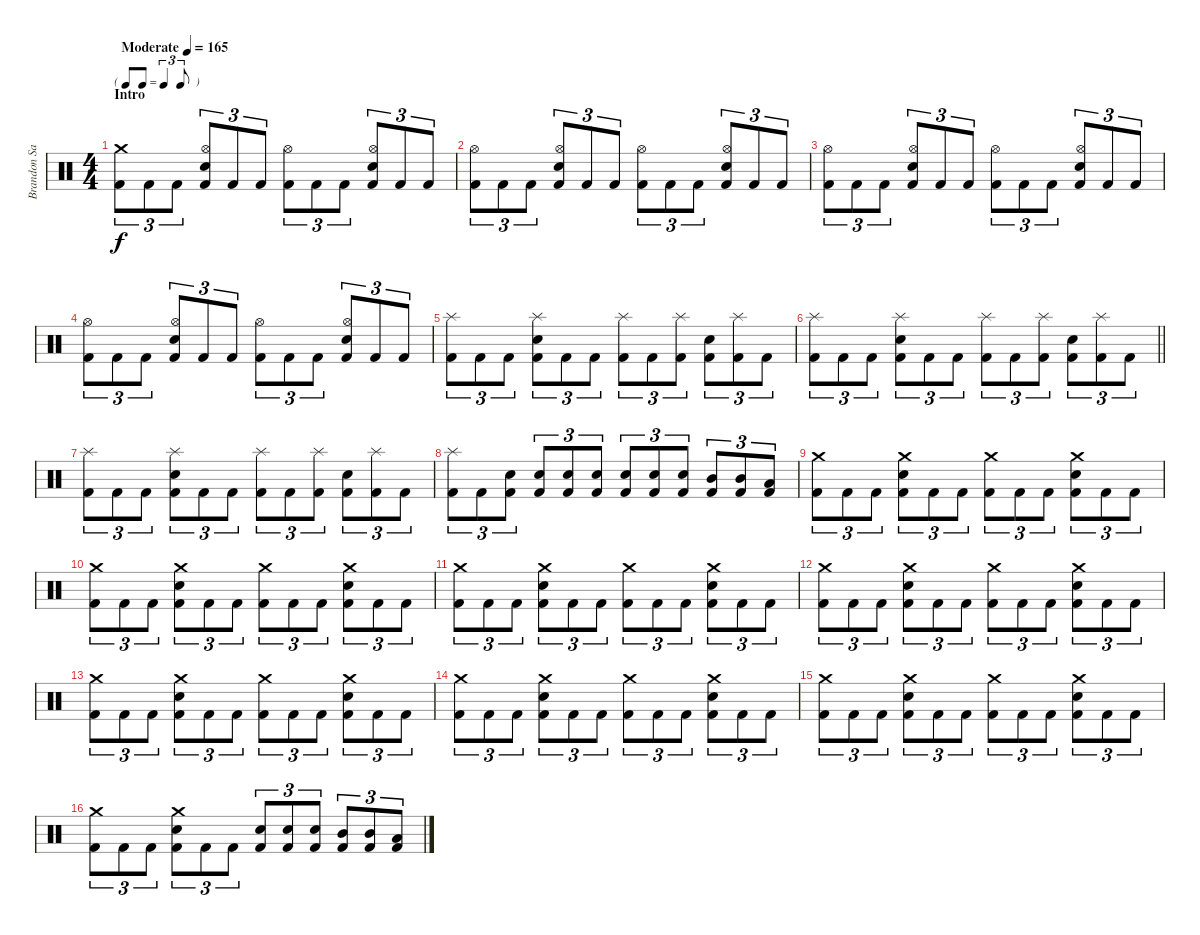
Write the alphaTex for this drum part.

\track ("Brandon Saller" "Brandon Sa") {instrument percussion}
\staff {score}
\articulation defaults
\ts (4 4)
\tf triplet8th
\section ("" "Intro")
\tempo (165 "Moderate")
\clef neutral
\ks c
("Crash medium (hit)" "Kick (hit) 2").8{tu (3 2) dy f} "Kick (hit) 2".8{tu (3 2)} "Kick (hit) 2".8{tu (3 2)} ("Hi-Hat (open)" "Electric Snare (hit)" "Kick (hit) 2").8{tu (3 2)} "Kick (hit) 2".8{tu (3 2)} "Kick (hit) 2".8{tu (3 2)} ("Hi-Hat (open)" "Kick (hit) 2").8{tu (3 2)} "Kick (hit) 2".8{tu (3 2)} "Kick (hit) 2".8{tu (3 2)} ("Hi-Hat (open)" "Electric Snare (hit)" "Kick (hit) 2").8{tu (3 2)} "Kick (hit) 2".8{tu (3 2)} "Kick (hit) 2".8{tu (3 2)} |
("Hi-Hat (open)" "Kick (hit) 2").8{tu (3 2)} "Kick (hit) 2".8{tu (3 2)} "Kick (hit) 2".8{tu (3 2)} ("Hi-Hat (open)" "Electric Snare (hit)" "Kick (hit) 2").8{tu (3 2)} "Kick (hit) 2".8{tu (3 2)} "Kick (hit) 2".8{tu (3 2)} ("Hi-Hat (open)" "Kick (hit) 2").8{tu (3 2)} "Kick (hit) 2".8{tu (3 2)} "Kick (hit) 2".8{tu (3 2)} ("Hi-Hat (open)" "Electric Snare (hit)" "Kick (hit) 2").8{tu (3 2)} "Kick (hit) 2".8{tu (3 2)} "Kick (hit) 2".8{tu (3 2)} |
("Hi-Hat (open)" "Kick (hit) 2").8{tu (3 2)} "Kick (hit) 2".8{tu (3 2)} "Kick (hit) 2".8{tu (3 2)} ("Hi-Hat (open)" "Electric Snare (hit)" "Kick (hit) 2").8{tu (3 2)} "Kick (hit) 2".8{tu (3 2)} "Kick (hit) 2".8{tu (3 2)} ("Hi-Hat (open)" "Kick (hit) 2").8{tu (3 2)} "Kick (hit) 2".8{tu (3 2)} "Kick (hit) 2".8{tu (3 2)} ("Hi-Hat (open)" "Electric Snare (hit)" "Kick (hit) 2").8{tu (3 2)} "Kick (hit) 2".8{tu (3 2)} "Kick (hit) 2".8{tu (3 2)} |
("Hi-Hat (open)" "Kick (hit) 2").8{tu (3 2)} "Kick (hit) 2".8{tu (3 2)} "Kick (hit) 2".8{tu (3 2)} ("Hi-Hat (open)" "Electric Snare (hit)" "Kick (hit) 2").8{tu (3 2)} "Kick (hit) 2".8{tu (3 2)} "Kick (hit) 2".8{tu (3 2)} ("Hi-Hat (open)" "Kick (hit) 2").8{tu (3 2)} "Kick (hit) 2".8{tu (3 2)} "Kick (hit) 2".8{tu (3 2)} ("Hi-Hat (open)" "Electric Snare (hit)" "Kick (hit) 2").8{tu (3 2)} "Kick (hit) 2".8{tu (3 2)} "Kick (hit) 2".8{tu (3 2)} |
("Splash (hit)" "Kick (hit) 2").8{tu (3 2)} "Kick (hit) 2".8{tu (3 2)} "Kick (hit) 2".8{tu (3 2)} ("Splash (hit)" "Electric Snare (hit)" "Kick (hit) 2").8{tu (3 2)} "Kick (hit) 2".8{tu (3 2)} "Kick (hit) 2".8{tu (3 2)} ("Splash (hit)" "Kick (hit) 2").8{tu (3 2)} "Kick (hit) 2".8{tu (3 2)} ("Splash (hit)" "Kick (hit) 2").8{tu (3 2)} ("Electric Snare (hit)" "Kick (hit) 2").8{tu (3 2)} ("Splash (hit)" "Kick (hit) 2").8{tu (3 2)} "Kick (hit) 2".8{tu (3 2)} |
\barLineRight lightlight
("Splash (hit)" "Kick (hit) 2").8{tu (3 2)} "Kick (hit) 2".8{tu (3 2)} "Kick (hit) 2".8{tu (3 2)} ("Splash (hit)" "Electric Snare (hit)" "Kick (hit) 2").8{tu (3 2)} "Kick (hit) 2".8{tu (3 2)} "Kick (hit) 2".8{tu (3 2)} ("Splash (hit)" "Kick (hit) 2").8{tu (3 2)} "Kick (hit) 2".8{tu (3 2)} ("Splash (hit)" "Kick (hit) 2").8{tu (3 2)} ("Electric Snare (hit)" "Kick (hit) 2").8{tu (3 2)} ("Splash (hit)" "Kick (hit) 2").8{tu (3 2)} "Kick (hit) 2".8{tu (3 2)} |
\section ("" "")
("Splash (hit)" "Kick (hit) 2").8{tu (3 2)} "Kick (hit) 2".8{tu (3 2)} "Kick (hit) 2".8{tu (3 2)} ("Splash (hit)" "Electric Snare (hit)" "Kick (hit) 2").8{tu (3 2)} "Kick (hit) 2".8{tu (3 2)} "Kick (hit) 2".8{tu (3 2)} ("Splash (hit)" "Kick (hit) 2").8{tu (3 2)} "Kick (hit) 2".8{tu (3 2)} ("Splash (hit)" "Kick (hit) 2").8{tu (3 2)} ("Electric Snare (hit)" "Kick (hit) 2").8{tu (3 2)} ("Splash (hit)" "Kick (hit) 2").8{tu (3 2)} "Kick (hit) 2".8{tu (3 2)} |
("Splash (hit)" "Kick (hit) 2").8{tu (3 2)} "Kick (hit) 2".8{tu (3 2)} ("Electric Snare (hit)" "Kick (hit) 2").8{tu (3 2)} ("Electric Snare (hit)" "Kick (hit) 2").8{tu (3 2)} ("Electric Snare (hit)" "Kick (hit) 2").8{tu (3 2)} ("Electric Snare (hit)" "Kick (hit) 2").8{tu (3 2)} ("Electric Snare (hit)" "Kick (hit) 2").8{tu (3 2)} ("Electric Snare (hit)" "Kick (hit) 2").8{tu (3 2)} ("Electric Snare (hit)" "Kick (hit) 2").8{tu (3 2)} ("Mid Tom (hit)" "Kick (hit) 2").8{tu (3 2)} ("Mid Tom (hit)" "Kick (hit) 2").8{tu (3 2)} ("Low Tom (hit)" "Kick (hit) 2").8{tu (3 2)} |
("Crash medium (hit)" "Kick (hit) 2").8{tu (3 2)} "Kick (hit) 2".8{tu (3 2)} "Kick (hit) 2".8{tu (3 2)} ("Crash medium (hit)" "Electric Snare (hit)" "Kick (hit) 2").8{tu (3 2)} "Kick (hit) 2".8{tu (3 2)} "Kick (hit) 2".8{tu (3 2)} ("Crash medium (hit)" "Kick (hit) 2").8{tu (3 2)} "Kick (hit) 2".8{tu (3 2)} "Kick (hit) 2".8{tu (3 2)} ("Crash medium (hit)" "Electric Snare (hit)" "Kick (hit) 2").8{tu (3 2)} "Kick (hit) 2".8{tu (3 2)} "Kick (hit) 2".8{tu (3 2)} |
("Crash medium (hit)" "Kick (hit) 2").8{tu (3 2)} "Kick (hit) 2".8{tu (3 2)} "Kick (hit) 2".8{tu (3 2)} ("Crash medium (hit)" "Electric Snare (hit)" "Kick (hit) 2").8{tu (3 2)} "Kick (hit) 2".8{tu (3 2)} "Kick (hit) 2".8{tu (3 2)} ("Crash medium (hit)" "Kick (hit) 2").8{tu (3 2)} "Kick (hit) 2".8{tu (3 2)} "Kick (hit) 2".8{tu (3 2)} ("Crash medium (hit)" "Electric Snare (hit)" "Kick (hit) 2").8{tu (3 2)} "Kick (hit) 2".8{tu (3 2)} "Kick (hit) 2".8{tu (3 2)} |
("Crash medium (hit)" "Kick (hit) 2").8{tu (3 2)} "Kick (hit) 2".8{tu (3 2)} "Kick (hit) 2".8{tu (3 2)} ("Crash medium (hit)" "Electric Snare (hit)" "Kick (hit) 2").8{tu (3 2)} "Kick (hit) 2".8{tu (3 2)} "Kick (hit) 2".8{tu (3 2)} ("Crash medium (hit)" "Kick (hit) 2").8{tu (3 2)} "Kick (hit) 2".8{tu (3 2)} "Kick (hit) 2".8{tu (3 2)} ("Crash medium (hit)" "Electric Snare (hit)" "Kick (hit) 2").8{tu (3 2)} "Kick (hit) 2".8{tu (3 2)} "Kick (hit) 2".8{tu (3 2)} |
("Crash medium (hit)" "Kick (hit) 2").8{tu (3 2)} "Kick (hit) 2".8{tu (3 2)} "Kick (hit) 2".8{tu (3 2)} ("Crash medium (hit)" "Electric Snare (hit)" "Kick (hit) 2").8{tu (3 2)} "Kick (hit) 2".8{tu (3 2)} "Kick (hit) 2".8{tu (3 2)} ("Crash medium (hit)" "Kick (hit) 2").8{tu (3 2)} "Kick (hit) 2".8{tu (3 2)} "Kick (hit) 2".8{tu (3 2)} ("Crash medium (hit)" "Electric Snare (hit)" "Kick (hit) 2").8{tu (3 2)} "Kick (hit) 2".8{tu (3 2)} "Kick (hit) 2".8{tu (3 2)} |
("Crash medium (hit)" "Kick (hit) 2").8{tu (3 2)} "Kick (hit) 2".8{tu (3 2)} "Kick (hit) 2".8{tu (3 2)} ("Crash medium (hit)" "Electric Snare (hit)" "Kick (hit) 2").8{tu (3 2)} "Kick (hit) 2".8{tu (3 2)} "Kick (hit) 2".8{tu (3 2)} ("Crash medium (hit)" "Kick (hit) 2").8{tu (3 2)} "Kick (hit) 2".8{tu (3 2)} "Kick (hit) 2".8{tu (3 2)} ("Crash medium (hit)" "Electric Snare (hit)" "Kick (hit) 2").8{tu (3 2)} "Kick (hit) 2".8{tu (3 2)} "Kick (hit) 2".8{tu (3 2)} |
("Crash medium (hit)" "Kick (hit) 2").8{tu (3 2)} "Kick (hit) 2".8{tu (3 2)} "Kick (hit) 2".8{tu (3 2)} ("Crash medium (hit)" "Electric Snare (hit)" "Kick (hit) 2").8{tu (3 2)} "Kick (hit) 2".8{tu (3 2)} "Kick (hit) 2".8{tu (3 2)} ("Crash medium (hit)" "Kick (hit) 2").8{tu (3 2)} "Kick (hit) 2".8{tu (3 2)} "Kick (hit) 2".8{tu (3 2)} ("Crash medium (hit)" "Electric Snare (hit)" "Kick (hit) 2").8{tu (3 2)} "Kick (hit) 2".8{tu (3 2)} "Kick (hit) 2".8{tu (3 2)} |
("Crash medium (hit)" "Kick (hit) 2").8{tu (3 2)} "Kick (hit) 2".8{tu (3 2)} "Kick (hit) 2".8{tu (3 2)} ("Crash medium (hit)" "Electric Snare (hit)" "Kick (hit) 2").8{tu (3 2)} "Kick (hit) 2".8{tu (3 2)} "Kick (hit) 2".8{tu (3 2)} ("Crash medium (hit)" "Kick (hit) 2").8{tu (3 2)} "Kick (hit) 2".8{tu (3 2)} "Kick (hit) 2".8{tu (3 2)} ("Crash medium (hit)" "Electric Snare (hit)" "Kick (hit) 2").8{tu (3 2)} "Kick (hit) 2".8{tu (3 2)} "Kick (hit) 2".8{tu (3 2)} |
("Crash medium (hit)" "Kick (hit) 2").8{tu (3 2)} "Kick (hit) 2".8{tu (3 2)} "Kick (hit) 2".8{tu (3 2)} ("Crash medium (hit)" "Electric Snare (hit)" "Kick (hit) 2").8{tu (3 2)} "Kick (hit) 2".8{tu (3 2)} "Kick (hit) 2".8{tu (3 2)} ("Electric Snare (hit)" "Kick (hit) 2").8{tu (3 2)} ("Electric Snare (hit)" "Kick (hit) 2").8{tu (3 2)} ("Electric Snare (hit)" "Kick (hit) 2").8{tu (3 2)} ("Mid Tom (hit)" "Kick (hit) 2").8{tu (3 2)} ("Mid Tom (hit)" "Kick (hit) 2").8{tu (3 2)} ("Low Tom (hit)" "Kick (hit) 2").8{tu (3 2)}
